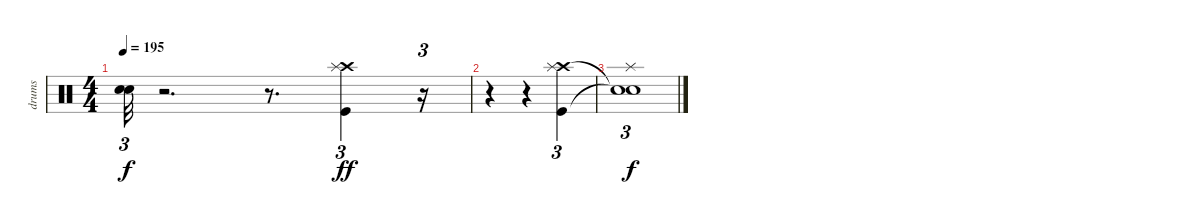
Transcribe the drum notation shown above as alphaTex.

\track ("drums" "drums") {instrument percussion}
\staff {score}
\articulation defaults
\ts (4 4)
\tempo 195
\clef neutral
\ks c
("Snare (hit)"{t} "Snare (hit)"{t}).32{tu (3 2) dy f} r.2{d} r.8{d} ("Kick (hit)" "Crash high (hit)" "Splash (hit)").4{tu (3 2) dy ff} r.16{tu (3 2)} |
r.4 r.4 ("Kick (hit)" "Crash high (hit)" "Splash (hit)").4{tu (3 2)} |
("Snare (hit)"{t} "Snare (hit)"{t} "Splash (hit)").1{tu (3 2) dy f}
